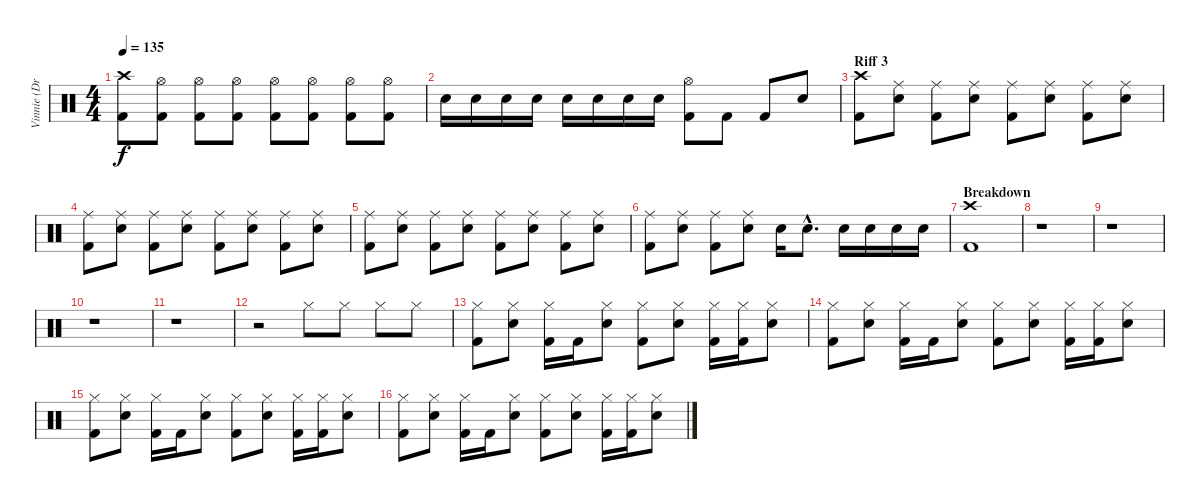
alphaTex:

\track ("Vinnie (Drums)" "Vinnie (Dr") {instrument percussion}
\staff {score}
\articulation defaults
\ts (4 4)
\tempo 135
\clef neutral
\ks c
("Crash high (hit)" "Kick (hit) 2").8{dy f} ("Hi-Hat (open)" "Kick (hit) 2").8 ("Hi-Hat (open)" "Kick (hit) 2").8 ("Hi-Hat (open)" "Kick (hit) 2").8 ("Hi-Hat (open)" "Kick (hit) 2").8 ("Hi-Hat (open)" "Kick (hit) 2").8 ("Hi-Hat (open)" "Kick (hit) 2").8 ("Hi-Hat (open)" "Kick (hit) 2").8 |
"Snare (hit) 2".16 "Snare (hit) 2".16 "Snare (hit) 2".16 "Snare (hit) 2".16 "Snare (hit) 2".16 "Snare (hit) 2".16 "Snare (hit) 2".16 "Snare (hit) 2".16 ("Hi-Hat (open)" "Kick (hit) 2").8 "Kick (hit) 2".8 "Kick (hit) 2".8 "Snare (hit) 2".8 |
\section ("" "Riff 3")
("Crash high (hit)" "Kick (hit) 2").8 ("Ride (middle)" "Snare (hit) 2").8 ("Ride (middle)" "Kick (hit) 2").8 ("Ride (middle)" "Snare (hit) 2").8 ("Ride (middle)" "Kick (hit) 2").8 ("Ride (middle)" "Snare (hit) 2").8 ("Ride (middle)" "Kick (hit) 2").8 ("Ride (middle)" "Snare (hit) 2").8 |
("Ride (middle)" "Kick (hit) 2").8 ("Ride (middle)" "Snare (hit) 2").8 ("Ride (middle)" "Kick (hit) 2").8 ("Ride (middle)" "Snare (hit) 2").8 ("Ride (middle)" "Kick (hit) 2").8 ("Ride (middle)" "Snare (hit) 2").8 ("Ride (middle)" "Kick (hit) 2").8 ("Ride (middle)" "Snare (hit) 2").8 |
("Ride (middle)" "Kick (hit) 2").8 ("Ride (middle)" "Snare (hit) 2").8 ("Ride (middle)" "Kick (hit) 2").8 ("Ride (middle)" "Snare (hit) 2").8 ("Ride (middle)" "Kick (hit) 2").8 ("Ride (middle)" "Snare (hit) 2").8 ("Ride (middle)" "Kick (hit) 2").8 ("Ride (middle)" "Snare (hit) 2").8 |
("Ride (middle)" "Kick (hit) 2").8 ("Ride (middle)" "Electric Snare (hit)").8 ("Ride (middle)" "Kick (hit) 2").8 ("Ride (middle)" "Electric Snare (hit)").8 "Snare (hit) 2".16 "Snare (hit) 2"{hac}.8{d} "Snare (hit) 2".16 "Snare (hit) 2".16 "Snare (hit) 2".16 "Snare (hit) 2".16 |
\section ("" "Breakdown")
("Crash high (hit)" "Kick (hit) 2").1 |
r.1 |
r.1 |
r.1 |
r.1 |
r.2 "Hi-Hat (closed)".8 "Hi-Hat (closed)".8 "Hi-Hat (closed)".8 "Hi-Hat (closed)".8 |
("Hi-Hat (closed)" "Kick (hit) 2").8 ("Hi-Hat (closed)" "Snare (hit) 2").8 ("Hi-Hat (closed)" "Kick (hit) 2").16 "Kick (hit) 2".16 ("Hi-Hat (closed)" "Snare (hit) 2").8 ("Hi-Hat (closed)" "Kick (hit) 2").8 ("Hi-Hat (closed)" "Snare (hit) 2").8 ("Hi-Hat (closed)" "Kick (hit) 2").16 ("Hi-Hat (closed)" "Kick (hit) 2").16 ("Hi-Hat (closed)" "Snare (hit) 2").8 |
("Hi-Hat (closed)" "Kick (hit) 2").8 ("Hi-Hat (closed)" "Snare (hit) 2").8 ("Hi-Hat (closed)" "Kick (hit) 2").16 "Kick (hit) 2".16 ("Hi-Hat (closed)" "Snare (hit) 2").8 ("Hi-Hat (closed)" "Kick (hit) 2").8 ("Hi-Hat (closed)" "Snare (hit) 2").8 ("Hi-Hat (closed)" "Kick (hit) 2").16 ("Hi-Hat (closed)" "Kick (hit) 2").16 ("Hi-Hat (closed)" "Snare (hit) 2").8 |
("Hi-Hat (closed)" "Kick (hit) 2").8 ("Hi-Hat (closed)" "Snare (hit) 2").8 ("Hi-Hat (closed)" "Kick (hit) 2").16 "Kick (hit) 2".16 ("Hi-Hat (closed)" "Snare (hit) 2").8 ("Hi-Hat (closed)" "Kick (hit) 2").8 ("Hi-Hat (closed)" "Snare (hit) 2").8 ("Hi-Hat (closed)" "Kick (hit) 2").16 ("Hi-Hat (closed)" "Kick (hit) 2").16 ("Hi-Hat (closed)" "Snare (hit) 2").8 |
("Hi-Hat (closed)" "Kick (hit) 2").8 ("Hi-Hat (closed)" "Snare (hit) 2").8 ("Hi-Hat (closed)" "Kick (hit) 2").16 "Kick (hit) 2".16 ("Hi-Hat (closed)" "Snare (hit) 2").8 ("Hi-Hat (closed)" "Kick (hit) 2").8 ("Hi-Hat (closed)" "Snare (hit) 2").8 ("Hi-Hat (closed)" "Kick (hit) 2").16 ("Hi-Hat (closed)" "Kick (hit) 2").16 ("Hi-Hat (closed)" "Snare (hit) 2").8
